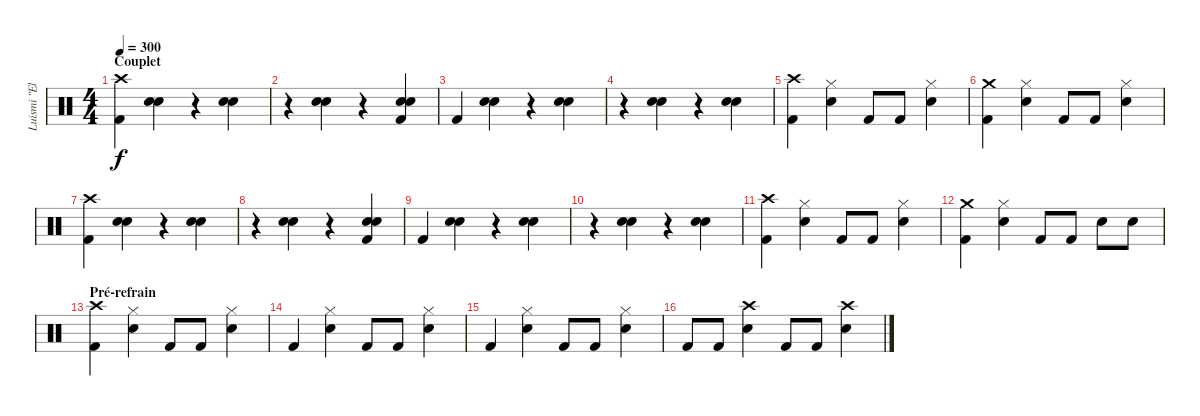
\track ("Luismi \"El Papi\"" "Luismi \"El") {instrument percussion}
\staff {score}
\articulation defaults
\ts (4 4)
\section ("" "Couplet")
\tempo 300
\clef neutral
\ks c
("Crash high (hit)" "Kick (hit) 2").4{dy f} ("Snare (hit) 2" "Snare (hit) 2").4 r.4 ("Snare (hit) 2" "Snare (hit) 2").4 |
r.4 ("Snare (hit) 2" "Snare (hit) 2").4 r.4 ("Kick (hit) 2" "Snare (hit) 2" "Snare (hit) 2").4 |
"Kick (hit) 2".4 ("Snare (hit) 2" "Snare (hit) 2").4 r.4 ("Snare (hit) 2" "Snare (hit) 2").4 |
r.4 ("Snare (hit) 2" "Snare (hit) 2").4 r.4 ("Snare (hit) 2" "Snare (hit) 2").4 |
("Crash high (hit)" "Kick (hit) 2").4 ("Hi-Hat (closed)" "Snare (hit) 2").4 "Kick (hit) 2".8 "Kick (hit) 2".8 ("Hi-Hat (closed)" "Snare (hit) 2").4 |
("Crash medium (hit)" "Kick (hit) 2").4 ("Hi-Hat (closed)" "Snare (hit) 2").4 "Kick (hit) 2".8 "Kick (hit) 2".8 ("Hi-Hat (closed)" "Snare (hit) 2").4 |
("Crash high (hit)" "Kick (hit) 2").4 ("Snare (hit) 2" "Snare (hit) 2").4 r.4 ("Snare (hit) 2" "Snare (hit) 2").4 |
r.4 ("Snare (hit) 2" "Snare (hit) 2").4 r.4 ("Kick (hit) 2" "Snare (hit) 2" "Snare (hit) 2").4 |
"Kick (hit) 2".4 ("Snare (hit) 2" "Snare (hit) 2").4 r.4 ("Snare (hit) 2" "Snare (hit) 2").4 |
r.4 ("Snare (hit) 2" "Snare (hit) 2").4 r.4 ("Snare (hit) 2" "Snare (hit) 2").4 |
("Crash high (hit)" "Kick (hit) 2").4 ("Hi-Hat (closed)" "Snare (hit) 2").4 "Kick (hit) 2".8 "Kick (hit) 2".8 ("Hi-Hat (closed)" "Snare (hit) 2").4 |
("Crash medium (hit)" "Kick (hit) 2").4 ("Hi-Hat (closed)" "Snare (hit) 2").4 "Kick (hit) 2".8 "Kick (hit) 2".8 "Snare (hit) 2".8 "Snare (hit) 2".8 |
\section ("" "Pré-refrain")
("Crash high (hit)" "Kick (hit) 2").4 ("Hi-Hat (closed)" "Snare (hit) 2").4 "Kick (hit) 2".8 "Kick (hit) 2".8 ("Hi-Hat (closed)" "Snare (hit) 2").4 |
"Kick (hit) 2".4 ("Hi-Hat (closed)" "Snare (hit) 2").4 "Kick (hit) 2".8 "Kick (hit) 2".8 ("Hi-Hat (closed)" "Snare (hit) 2").4 |
"Kick (hit) 2".4 ("Hi-Hat (closed)" "Snare (hit) 2").4 "Kick (hit) 2".8 "Kick (hit) 2".8 ("Hi-Hat (closed)" "Snare (hit) 2").4 |
"Kick (hit) 2".8 "Kick (hit) 2".8 ("Crash high (hit)" "Snare (hit) 2").4 "Kick (hit) 2".8 "Kick (hit) 2".8 ("Crash high (hit)" "Snare (hit) 2").4
